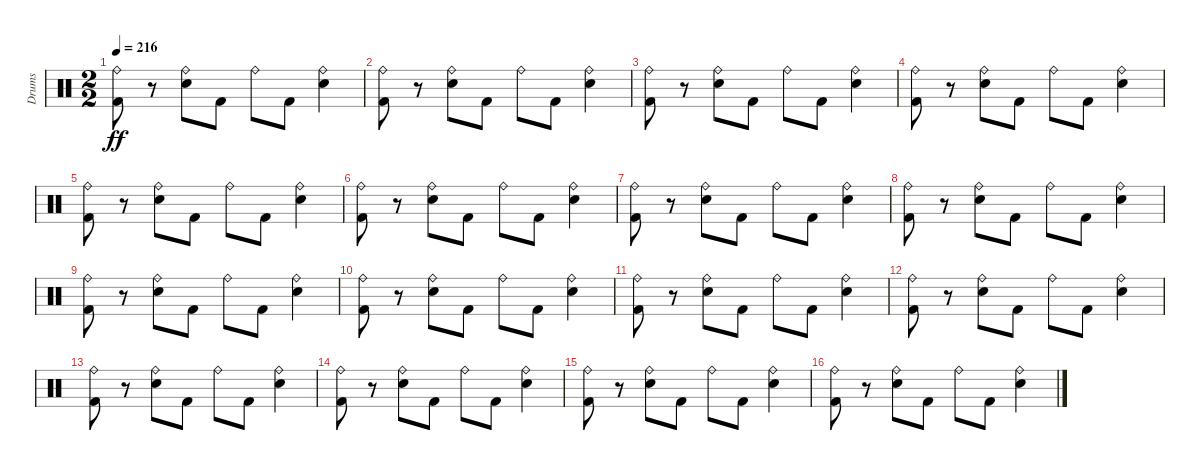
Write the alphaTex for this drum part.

\track ("Drums" "Drums") {instrument percussion}
\staff {score}
\articulation defaults
\ts (2 2)
\tempo 216
\clef neutral
\ks c
("Kick (hit) 2" "Ride (bell)").8{dy ff} r.8 ("Electric Snare (hit)" "Ride (bell)").8 "Kick (hit) 2".8 "Ride (bell)".8 "Kick (hit) 2".8 ("Electric Snare (hit)" "Ride (bell)").4 |
("Kick (hit) 2" "Ride (bell)").8 r.8 ("Electric Snare (hit)" "Ride (bell)").8 "Kick (hit) 2".8 "Ride (bell)".8 "Kick (hit) 2".8 ("Electric Snare (hit)" "Ride (bell)").4 |
("Kick (hit) 2" "Ride (bell)").8 r.8 ("Electric Snare (hit)" "Ride (bell)").8 "Kick (hit) 2".8 "Ride (bell)".8 "Kick (hit) 2".8 ("Electric Snare (hit)" "Ride (bell)").4 |
("Kick (hit) 2" "Ride (bell)").8 r.8 ("Electric Snare (hit)" "Ride (bell)").8 "Kick (hit) 2".8 "Ride (bell)".8 "Kick (hit) 2".8 ("Electric Snare (hit)" "Ride (bell)").4 |
("Kick (hit) 2" "Ride (bell)").8 r.8 ("Electric Snare (hit)" "Ride (bell)").8 "Kick (hit) 2".8 "Ride (bell)".8 "Kick (hit) 2".8 ("Electric Snare (hit)" "Ride (bell)").4 |
("Kick (hit) 2" "Ride (bell)").8 r.8 ("Electric Snare (hit)" "Ride (bell)").8 "Kick (hit) 2".8 "Ride (bell)".8 "Kick (hit) 2".8 ("Electric Snare (hit)" "Ride (bell)").4 |
("Kick (hit) 2" "Ride (bell)").8 r.8 ("Electric Snare (hit)" "Ride (bell)").8 "Kick (hit) 2".8 "Ride (bell)".8 "Kick (hit) 2".8 ("Electric Snare (hit)" "Ride (bell)").4 |
("Kick (hit) 2" "Ride (bell)").8 r.8 ("Electric Snare (hit)" "Ride (bell)").8 "Kick (hit) 2".8 "Ride (bell)".8 "Kick (hit) 2".8 ("Electric Snare (hit)" "Ride (bell)").4 |
("Kick (hit) 2" "Ride (bell)").8 r.8 ("Electric Snare (hit)" "Ride (bell)").8 "Kick (hit) 2".8 "Ride (bell)".8 "Kick (hit) 2".8 ("Electric Snare (hit)" "Ride (bell)").4 |
("Kick (hit) 2" "Ride (bell)").8 r.8 ("Electric Snare (hit)" "Ride (bell)").8 "Kick (hit) 2".8 "Ride (bell)".8 "Kick (hit) 2".8 ("Electric Snare (hit)" "Ride (bell)").4 |
("Kick (hit) 2" "Ride (bell)").8 r.8 ("Electric Snare (hit)" "Ride (bell)").8 "Kick (hit) 2".8 "Ride (bell)".8 "Kick (hit) 2".8 ("Electric Snare (hit)" "Ride (bell)").4 |
("Kick (hit) 2" "Ride (bell)").8 r.8 ("Electric Snare (hit)" "Ride (bell)").8 "Kick (hit) 2".8 "Ride (bell)".8 "Kick (hit) 2".8 ("Electric Snare (hit)" "Ride (bell)").4 |
("Kick (hit) 2" "Ride (bell)").8 r.8 ("Electric Snare (hit)" "Ride (bell)").8 "Kick (hit) 2".8 "Ride (bell)".8 "Kick (hit) 2".8 ("Electric Snare (hit)" "Ride (bell)").4 |
("Kick (hit) 2" "Ride (bell)").8 r.8 ("Electric Snare (hit)" "Ride (bell)").8 "Kick (hit) 2".8 "Ride (bell)".8 "Kick (hit) 2".8 ("Electric Snare (hit)" "Ride (bell)").4 |
("Kick (hit) 2" "Ride (bell)").8 r.8 ("Electric Snare (hit)" "Ride (bell)").8 "Kick (hit) 2".8 "Ride (bell)".8 "Kick (hit) 2".8 ("Electric Snare (hit)" "Ride (bell)").4 |
("Kick (hit) 2" "Ride (bell)").8 r.8 ("Electric Snare (hit)" "Ride (bell)").8 "Kick (hit) 2".8 "Ride (bell)".8 "Kick (hit) 2".8 ("Electric Snare (hit)" "Ride (bell)").4
